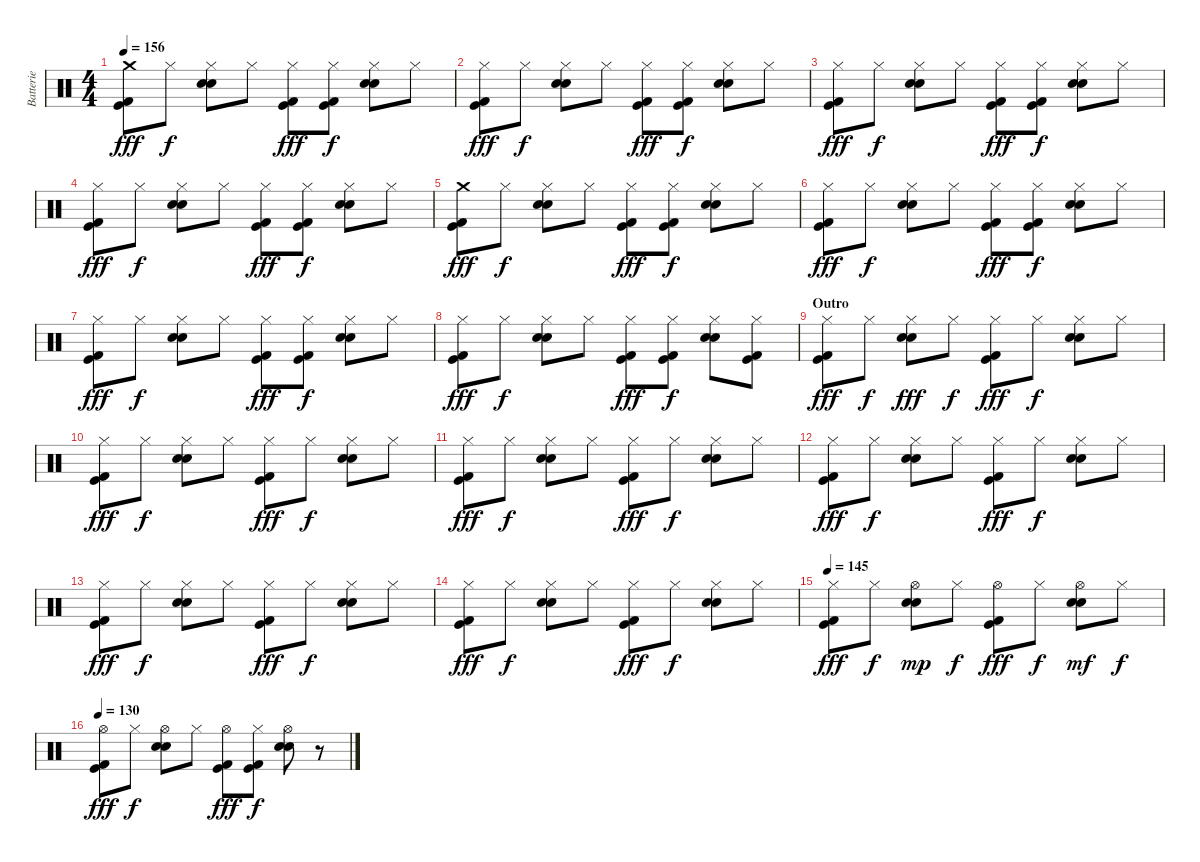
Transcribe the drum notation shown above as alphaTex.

\track ("Batterie" "Batterie") {instrument percussion}
\staff {score}
\articulation defaults
\ts (4 4)
\tempo 156
\clef neutral
\ks c
("Crash medium (hit)" "Kick (hit)" "Kick (hit) 2").8{dy fff} "Hi-Hat (closed)".8{dy f} ("Hi-Hat (closed)" "Snare (hit) 2" "Electric Snare (hit)").8 "Hi-Hat (closed)".8 ("Hi-Hat (closed)" "Kick (hit)" "Kick (hit) 2").8{dy fff} ("Hi-Hat (closed)" "Kick (hit)" "Kick (hit) 2").8{dy f} ("Hi-Hat (closed)" "Snare (hit) 2" "Electric Snare (hit)").8 "Hi-Hat (closed)".8 |
("Hi-Hat (closed)" "Kick (hit)" "Kick (hit) 2").8{dy fff} "Hi-Hat (closed)".8{dy f} ("Hi-Hat (closed)" "Snare (hit) 2" "Electric Snare (hit)").8 "Hi-Hat (closed)".8 ("Hi-Hat (closed)" "Kick (hit)" "Kick (hit) 2").8{dy fff} ("Hi-Hat (closed)" "Kick (hit)" "Kick (hit) 2").8{dy f} ("Hi-Hat (closed)" "Snare (hit) 2" "Electric Snare (hit)").8 "Hi-Hat (closed)".8 |
("Hi-Hat (closed)" "Kick (hit)" "Kick (hit) 2").8{dy fff} "Hi-Hat (closed)".8{dy f} ("Hi-Hat (closed)" "Snare (hit) 2" "Electric Snare (hit)").8 "Hi-Hat (closed)".8 ("Hi-Hat (closed)" "Kick (hit)" "Kick (hit) 2").8{dy fff} ("Hi-Hat (closed)" "Kick (hit)" "Kick (hit) 2").8{dy f} ("Hi-Hat (closed)" "Snare (hit) 2" "Electric Snare (hit)").8 "Hi-Hat (closed)".8 |
("Hi-Hat (closed)" "Kick (hit)" "Kick (hit) 2").8{dy fff} "Hi-Hat (closed)".8{dy f} ("Hi-Hat (closed)" "Snare (hit) 2" "Electric Snare (hit)").8 "Hi-Hat (closed)".8 ("Hi-Hat (closed)" "Kick (hit)" "Kick (hit) 2").8{dy fff} ("Hi-Hat (closed)" "Kick (hit)" "Kick (hit) 2").8{dy f} ("Hi-Hat (closed)" "Snare (hit) 2" "Electric Snare (hit)").8 "Hi-Hat (closed)".8 |
("Crash medium (hit)" "Kick (hit)" "Kick (hit) 2").8{dy fff} "Hi-Hat (closed)".8{dy f} ("Hi-Hat (closed)" "Snare (hit) 2" "Electric Snare (hit)").8 "Hi-Hat (closed)".8 ("Hi-Hat (closed)" "Kick (hit)" "Kick (hit) 2").8{dy fff} ("Hi-Hat (closed)" "Kick (hit)" "Kick (hit) 2").8{dy f} ("Hi-Hat (closed)" "Snare (hit) 2" "Electric Snare (hit)").8 "Hi-Hat (closed)".8 |
("Hi-Hat (closed)" "Kick (hit)" "Kick (hit) 2").8{dy fff} "Hi-Hat (closed)".8{dy f} ("Hi-Hat (closed)" "Snare (hit) 2" "Electric Snare (hit)").8 "Hi-Hat (closed)".8 ("Hi-Hat (closed)" "Kick (hit)" "Kick (hit) 2").8{dy fff} ("Hi-Hat (closed)" "Kick (hit)" "Kick (hit) 2").8{dy f} ("Hi-Hat (closed)" "Snare (hit) 2" "Electric Snare (hit)").8 "Hi-Hat (closed)".8 |
("Hi-Hat (closed)" "Kick (hit)" "Kick (hit) 2").8{dy fff} "Hi-Hat (closed)".8{dy f} ("Hi-Hat (closed)" "Snare (hit) 2" "Electric Snare (hit)").8 "Hi-Hat (closed)".8 ("Hi-Hat (closed)" "Kick (hit)" "Kick (hit) 2").8{dy fff} ("Hi-Hat (closed)" "Kick (hit)" "Kick (hit) 2").8{dy f} ("Hi-Hat (closed)" "Snare (hit) 2" "Electric Snare (hit)").8 "Hi-Hat (closed)".8 |
("Hi-Hat (closed)" "Kick (hit)" "Kick (hit) 2").8{dy fff} "Hi-Hat (closed)".8{dy f} ("Hi-Hat (closed)" "Snare (hit) 2" "Electric Snare (hit)").8 "Hi-Hat (closed)".8 ("Hi-Hat (closed)" "Kick (hit)" "Kick (hit) 2").8{dy fff} ("Hi-Hat (closed)" "Kick (hit)" "Kick (hit) 2").8{dy f} ("Hi-Hat (closed)" "Snare (hit) 2" "Electric Snare (hit)").8 ("Hi-Hat (closed)" "Kick (hit)" "Kick (hit) 2").8 |
\section ("" "Outro")
("Hi-Hat (closed)" "Kick (hit)" "Kick (hit) 2").8{dy fff} "Hi-Hat (closed)".8{dy f} ("Hi-Hat (closed)" "Snare (hit) 2" "Electric Snare (hit)").8{dy fff} "Hi-Hat (closed)".8{dy f} ("Hi-Hat (closed)" "Kick (hit)" "Kick (hit) 2").8{dy fff} "Hi-Hat (closed)".8{dy f} ("Hi-Hat (closed)" "Snare (hit) 2" "Electric Snare (hit)").8 "Hi-Hat (closed)".8 |
("Hi-Hat (closed)" "Kick (hit)" "Kick (hit) 2").8{dy fff} "Hi-Hat (closed)".8{dy f} ("Hi-Hat (closed)" "Snare (hit) 2" "Electric Snare (hit)").8 "Hi-Hat (closed)".8 ("Hi-Hat (closed)" "Kick (hit)" "Kick (hit) 2").8{dy fff} "Hi-Hat (closed)".8{dy f} ("Hi-Hat (closed)" "Snare (hit) 2" "Electric Snare (hit)").8 "Hi-Hat (closed)".8 |
("Hi-Hat (closed)" "Kick (hit)" "Kick (hit) 2").8{dy fff} "Hi-Hat (closed)".8{dy f} ("Hi-Hat (closed)" "Snare (hit) 2" "Electric Snare (hit)").8 "Hi-Hat (closed)".8 ("Hi-Hat (closed)" "Kick (hit)" "Kick (hit) 2").8{dy fff} "Hi-Hat (closed)".8{dy f} ("Hi-Hat (closed)" "Snare (hit) 2" "Electric Snare (hit)").8 "Hi-Hat (closed)".8 |
("Hi-Hat (closed)" "Kick (hit)" "Kick (hit) 2").8{dy fff} "Hi-Hat (closed)".8{dy f} ("Hi-Hat (closed)" "Snare (hit) 2" "Electric Snare (hit)").8 "Hi-Hat (closed)".8 ("Hi-Hat (closed)" "Kick (hit)" "Kick (hit) 2").8{dy fff} "Hi-Hat (closed)".8{dy f} ("Hi-Hat (closed)" "Snare (hit) 2" "Electric Snare (hit)").8 "Hi-Hat (closed)".8 |
("Hi-Hat (closed)" "Kick (hit)" "Kick (hit) 2").8{dy fff} "Hi-Hat (closed)".8{dy f} ("Hi-Hat (closed)" "Snare (hit) 2" "Electric Snare (hit)").8 "Hi-Hat (closed)".8 ("Hi-Hat (closed)" "Kick (hit)" "Kick (hit) 2").8{dy fff} "Hi-Hat (closed)".8{dy f} ("Hi-Hat (closed)" "Snare (hit) 2" "Electric Snare (hit)").8 "Hi-Hat (closed)".8 |
("Hi-Hat (closed)" "Kick (hit)" "Kick (hit) 2").8{dy fff} "Hi-Hat (closed)".8{dy f} ("Hi-Hat (closed)" "Snare (hit) 2" "Electric Snare (hit)").8 "Hi-Hat (closed)".8 ("Hi-Hat (closed)" "Kick (hit)" "Kick (hit) 2").8{dy fff} "Hi-Hat (closed)".8{dy f} ("Hi-Hat (closed)" "Snare (hit) 2" "Electric Snare (hit)").8 "Hi-Hat (closed)".8 |
\tempo 145
("Hi-Hat (closed)" "Kick (hit)" "Kick (hit) 2").8{dy fff} "Hi-Hat (closed)".8{dy f} ("Hi-Hat (open)" "Snare (hit) 2" "Electric Snare (hit)").8{dy mp} "Hi-Hat (closed)".8{dy f} ("Hi-Hat (open)" "Kick (hit)" "Kick (hit) 2").8{dy fff} "Hi-Hat (closed)".8{dy f} ("Hi-Hat (open)" "Snare (hit) 2" "Electric Snare (hit)").8{dy mf} "Hi-Hat (closed)".8{dy f} |
\tempo 130
("Hi-Hat (open)" "Kick (hit)" "Kick (hit) 2").8{dy fff} "Hi-Hat (closed)".8{dy f} ("Hi-Hat (open)" "Snare (hit) 2" "Electric Snare (hit)").8 "Hi-Hat (closed)".8 ("Hi-Hat (open)" "Kick (hit)" "Kick (hit) 2").8{dy fff} ("Hi-Hat (closed)" "Kick (hit)" "Kick (hit) 2").8{dy f} ("Hi-Hat (open)" "Snare (hit) 2" "Electric Snare (hit)").8 r.8
